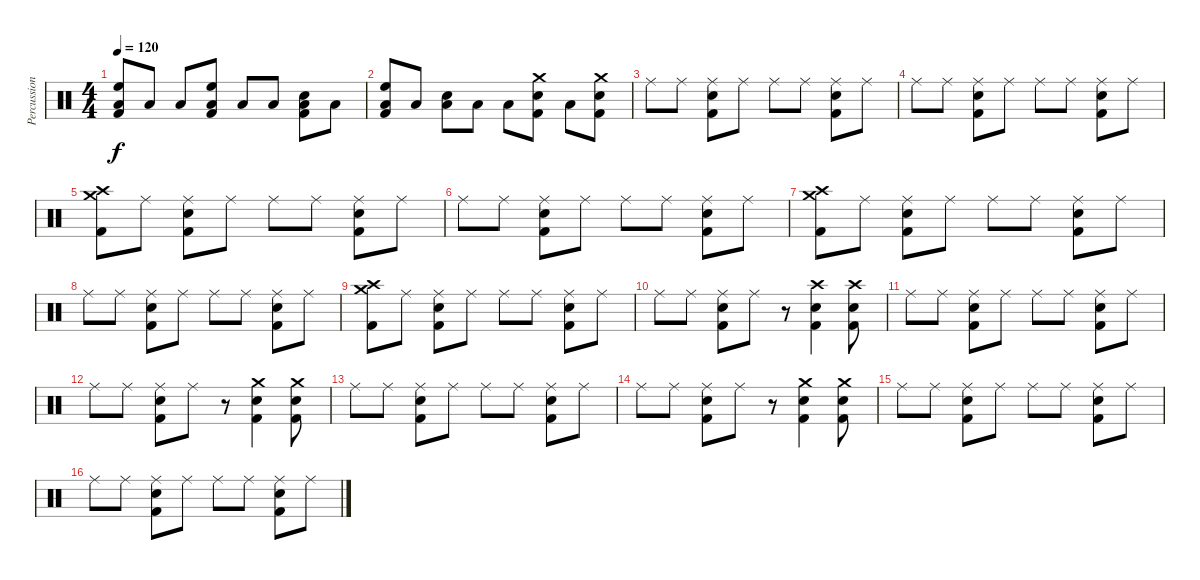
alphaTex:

\track ("Percussion" "Percussion") {instrument percussion}
\staff {score}
\articulation defaults
\ts (4 4)
\tempo 120
\clef neutral
\ks c
("Low Floor Tom (hit)" "High Floor Tom (hit)" "Kick (hit) 2").8{dy f} "Low Floor Tom (hit)".8 "Low Floor Tom (hit)".8 ("Low Floor Tom (hit)" "High Floor Tom (hit)" "Kick (hit) 2").8 "Low Floor Tom (hit)".8 "Low Floor Tom (hit)".8 ("Low Floor Tom (hit)" "Electric Snare (hit)" "Kick (hit) 2").8 "Low Floor Tom (hit)".8 |
("Low Floor Tom (hit)" "High Floor Tom (hit)" "Kick (hit) 2").8 "Low Floor Tom (hit)".8 ("Low Floor Tom (hit)" "Electric Snare (hit)").8 "Low Floor Tom (hit)".8 "Low Floor Tom (hit)".8 ("Crash medium (hit)" "Electric Snare (hit)" "Kick (hit) 2").8 "Low Floor Tom (hit)".8 ("Crash medium (hit)" "Electric Snare (hit)" "Kick (hit) 2").8 |
"Ride (middle)".8 "Ride (middle)".8 ("Ride (middle)" "Electric Snare (hit)" "Kick (hit) 2").8 "Ride (middle)".8 "Ride (middle)".8 "Ride (middle)".8 ("Ride (middle)" "Electric Snare (hit)" "Kick (hit) 2").8 "Ride (middle)".8 |
"Ride (middle)".8 "Ride (middle)".8 ("Ride (middle)" "Electric Snare (hit)" "Kick (hit) 2").8 "Ride (middle)".8 "Ride (middle)".8 "Ride (middle)".8 ("Ride (middle)" "Electric Snare (hit)" "Kick (hit) 2").8 "Ride (middle)".8 |
("Crash medium (hit)" "Crash high (hit)" "Kick (hit) 2").8 "Ride (middle)".8 ("Ride (middle)" "Electric Snare (hit)" "Kick (hit) 2").8 "Ride (middle)".8 "Ride (middle)".8 "Ride (middle)".8 ("Ride (middle)" "Electric Snare (hit)" "Kick (hit) 2").8 "Ride (middle)".8 |
"Ride (middle)".8 "Ride (middle)".8 ("Ride (middle)" "Electric Snare (hit)" "Kick (hit) 2").8 "Ride (middle)".8 "Ride (middle)".8 "Ride (middle)".8 ("Ride (middle)" "Electric Snare (hit)" "Kick (hit) 2").8 "Ride (middle)".8 |
("Crash medium (hit)" "Crash high (hit)" "Kick (hit) 2").8 "Ride (middle)".8 ("Ride (middle)" "Electric Snare (hit)" "Kick (hit) 2").8 "Ride (middle)".8 "Ride (middle)".8 "Ride (middle)".8 ("Ride (middle)" "Electric Snare (hit)" "Kick (hit) 2").8 "Ride (middle)".8 |
"Ride (middle)".8 "Ride (middle)".8 ("Ride (middle)" "Electric Snare (hit)" "Kick (hit) 2").8 "Ride (middle)".8 "Ride (middle)".8 "Ride (middle)".8 ("Ride (middle)" "Electric Snare (hit)" "Kick (hit) 2").8 "Ride (middle)".8 |
("Crash medium (hit)" "Crash high (hit)" "Kick (hit) 2").8 "Ride (middle)".8 ("Ride (middle)" "Electric Snare (hit)" "Kick (hit) 2").8 "Ride (middle)".8 "Ride (middle)".8 "Ride (middle)".8 ("Ride (middle)" "Electric Snare (hit)" "Kick (hit) 2").8 "Ride (middle)".8 |
"Ride (middle)".8 "Ride (middle)".8 ("Ride (middle)" "Electric Snare (hit)" "Kick (hit) 2").8 "Ride (middle)".8 r.8 ("Crash high (hit)" "Electric Snare (hit)" "Kick (hit) 2").4 ("Crash high (hit)" "Electric Snare (hit)" "Kick (hit) 2").8 |
"Ride (middle)".8 "Ride (middle)".8 ("Ride (middle)" "Electric Snare (hit)" "Kick (hit) 2").8 "Ride (middle)".8 "Ride (middle)".8 "Ride (middle)".8 ("Ride (middle)" "Electric Snare (hit)" "Kick (hit) 2").8 "Ride (middle)".8 |
"Ride (middle)".8 "Ride (middle)".8 ("Ride (middle)" "Electric Snare (hit)" "Kick (hit) 2").8 "Ride (middle)".8 r.8 ("Crash medium (hit)" "Electric Snare (hit)" "Kick (hit) 2").4 ("Crash medium (hit)" "Electric Snare (hit)" "Kick (hit) 2").8 |
"Ride (middle)".8 "Ride (middle)".8 ("Ride (middle)" "Electric Snare (hit)" "Kick (hit) 2").8 "Ride (middle)".8 "Ride (middle)".8 "Ride (middle)".8 ("Ride (middle)" "Electric Snare (hit)" "Kick (hit) 2").8 "Ride (middle)".8 |
"Ride (middle)".8 "Ride (middle)".8 ("Ride (middle)" "Electric Snare (hit)" "Kick (hit) 2").8 "Ride (middle)".8 r.8 ("Crash medium (hit)" "Electric Snare (hit)" "Kick (hit) 2").4 ("Crash medium (hit)" "Electric Snare (hit)" "Kick (hit) 2").8 |
"Ride (middle)".8 "Ride (middle)".8 ("Ride (middle)" "Electric Snare (hit)" "Kick (hit) 2").8 "Ride (middle)".8 "Ride (middle)".8 "Ride (middle)".8 ("Ride (middle)" "Electric Snare (hit)" "Kick (hit) 2").8 "Ride (middle)".8 |
"Ride (middle)".8 "Ride (middle)".8 ("Ride (middle)" "Electric Snare (hit)" "Kick (hit) 2").8 "Ride (middle)".8 "Ride (middle)".8 "Ride (middle)".8 ("Ride (middle)" "Electric Snare (hit)" "Kick (hit) 2").8 "Ride (middle)".8
